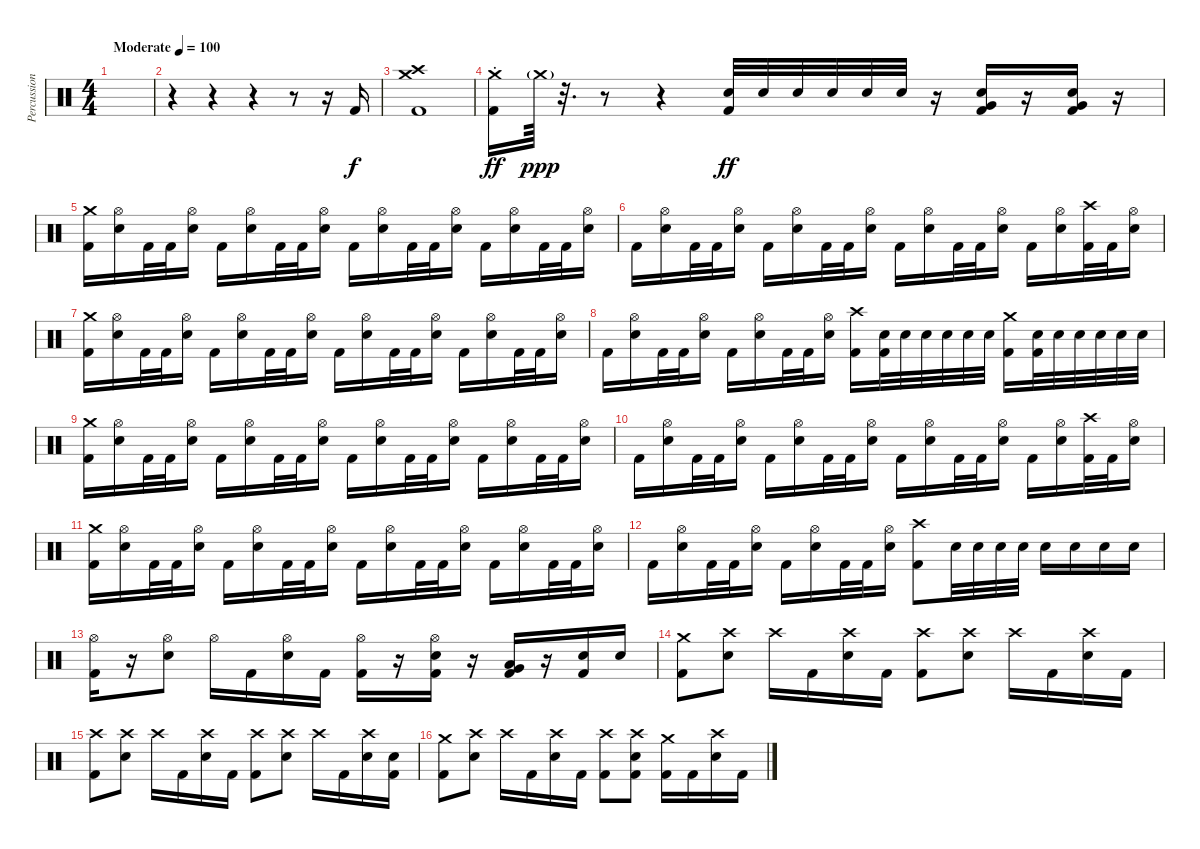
\track ("Percussion" "Percussion") {instrument percussion}
\staff {score}
\articulation defaults
\ts (4 4)
\tempo (100 "Moderate")
\clef neutral
\ks c
|
r.4 r.4 r.4 r.8 r.16 "Kick (hit) 2".16 |
("Crash medium (hit)" "Crash high (hit)" "Kick (hit) 2").1{dy f} |
("Crash medium (hit)"{st} "Kick (hit) 2").16{dy ff} "Crash medium (hit)"{g}.64{dy ppp} r.32{d} r.8 r.4 ("Electric Snare (hit)" "Kick (hit) 2").32{dy ff} "Electric Snare (hit)".32 "Electric Snare (hit)".32 "Electric Snare (hit)".32 "Electric Snare (hit)".32 "Electric Snare (hit)".32 r.16 ("Electric Snare (hit)" "Very Low Tom (hit)" "Kick (hit) 2").16 r.16 ("Electric Snare (hit)" "Very Low Tom (hit)" "Kick (hit) 2").16 r.16 |
("Crash medium (hit)" "Kick (hit) 2").16 ("Hi-Hat (open)" "Electric Snare (hit)").16 "Kick (hit) 2".32 "Kick (hit) 2".32 ("Hi-Hat (open)" "Electric Snare (hit)").16 "Kick (hit) 2".16 ("Hi-Hat (open)" "Electric Snare (hit)").16 "Kick (hit) 2".32 "Kick (hit) 2".32 ("Hi-Hat (open)" "Electric Snare (hit)").16 "Kick (hit) 2".16 ("Hi-Hat (open)" "Electric Snare (hit)").16 "Kick (hit) 2".32 "Kick (hit) 2".32 ("Hi-Hat (open)" "Electric Snare (hit)").16 "Kick (hit) 2".16 ("Hi-Hat (open)" "Electric Snare (hit)").16 "Kick (hit) 2".32 "Kick (hit) 2".32 ("Hi-Hat (open)" "Electric Snare (hit)").16 |
"Kick (hit) 2".16 ("Hi-Hat (open)" "Electric Snare (hit)").16 "Kick (hit) 2".32 "Kick (hit) 2".32 ("Hi-Hat (open)" "Electric Snare (hit)").16 "Kick (hit) 2".16 ("Hi-Hat (open)" "Electric Snare (hit)").16 "Kick (hit) 2".32 "Kick (hit) 2".32 ("Hi-Hat (open)" "Electric Snare (hit)").16 "Kick (hit) 2".16 ("Hi-Hat (open)" "Electric Snare (hit)").16 "Kick (hit) 2".32 "Kick (hit) 2".32 ("Hi-Hat (open)" "Electric Snare (hit)").16 "Kick (hit) 2".16 ("Hi-Hat (open)" "Electric Snare (hit)").16 ("Crash high (hit)" "Kick (hit) 2").32 "Kick (hit) 2".32 ("Hi-Hat (open)" "Electric Snare (hit)").16 |
("Crash medium (hit)" "Kick (hit) 2").16 ("Hi-Hat (open)" "Electric Snare (hit)").16 "Kick (hit) 2".32 "Kick (hit) 2".32 ("Hi-Hat (open)" "Electric Snare (hit)").16 "Kick (hit) 2".16 ("Hi-Hat (open)" "Electric Snare (hit)").16 "Kick (hit) 2".32 "Kick (hit) 2".32 ("Hi-Hat (open)" "Electric Snare (hit)").16 "Kick (hit) 2".16 ("Hi-Hat (open)" "Electric Snare (hit)").16 "Kick (hit) 2".32 "Kick (hit) 2".32 ("Hi-Hat (open)" "Electric Snare (hit)").16 "Kick (hit) 2".16 ("Hi-Hat (open)" "Electric Snare (hit)").16 "Kick (hit) 2".32 "Kick (hit) 2".32 ("Hi-Hat (open)" "Electric Snare (hit)").16 |
"Kick (hit) 2".16 ("Hi-Hat (open)" "Electric Snare (hit)").16 "Kick (hit) 2".32 "Kick (hit) 2".32 ("Hi-Hat (open)" "Electric Snare (hit)").16 "Kick (hit) 2".16 ("Hi-Hat (open)" "Electric Snare (hit)").16 "Kick (hit) 2".32 "Kick (hit) 2".32 ("Hi-Hat (open)" "Electric Snare (hit)").16 ("Crash high (hit)" "Kick (hit) 2").16 ("Electric Snare (hit)" "Kick (hit) 2").32 "Electric Snare (hit)".32 "Electric Snare (hit)".32 "Electric Snare (hit)".32 "Electric Snare (hit)".32 "Electric Snare (hit)".32 ("Crash medium (hit)" "Kick (hit) 2").16 ("Electric Snare (hit)" "Kick (hit) 2").32 "Electric Snare (hit)".32 "Electric Snare (hit)".32 "Electric Snare (hit)".32 "Electric Snare (hit)".32 "Electric Snare (hit)".32 |
("Crash medium (hit)" "Kick (hit) 2").16 ("Hi-Hat (open)" "Electric Snare (hit)").16 "Kick (hit) 2".32 "Kick (hit) 2".32 ("Hi-Hat (open)" "Electric Snare (hit)").16 "Kick (hit) 2".16 ("Hi-Hat (open)" "Electric Snare (hit)").16 "Kick (hit) 2".32 "Kick (hit) 2".32 ("Hi-Hat (open)" "Electric Snare (hit)").16 "Kick (hit) 2".16 ("Hi-Hat (open)" "Electric Snare (hit)").16 "Kick (hit) 2".32 "Kick (hit) 2".32 ("Hi-Hat (open)" "Electric Snare (hit)").16 "Kick (hit) 2".16 ("Hi-Hat (open)" "Electric Snare (hit)").16 "Kick (hit) 2".32 "Kick (hit) 2".32 ("Hi-Hat (open)" "Electric Snare (hit)").16 |
"Kick (hit) 2".16 ("Hi-Hat (open)" "Electric Snare (hit)").16 "Kick (hit) 2".32 "Kick (hit) 2".32 ("Hi-Hat (open)" "Electric Snare (hit)").16 "Kick (hit) 2".16 ("Hi-Hat (open)" "Electric Snare (hit)").16 "Kick (hit) 2".32 "Kick (hit) 2".32 ("Hi-Hat (open)" "Electric Snare (hit)").16 "Kick (hit) 2".16 ("Hi-Hat (open)" "Electric Snare (hit)").16 "Kick (hit) 2".32 "Kick (hit) 2".32 ("Hi-Hat (open)" "Electric Snare (hit)").16 "Kick (hit) 2".16 ("Hi-Hat (open)" "Electric Snare (hit)").16 ("Crash high (hit)" "Kick (hit) 2").32 "Kick (hit) 2".32 ("Hi-Hat (open)" "Electric Snare (hit)").16 |
("Crash medium (hit)" "Kick (hit) 2").16 ("Hi-Hat (open)" "Electric Snare (hit)").16 "Kick (hit) 2".32 "Kick (hit) 2".32 ("Hi-Hat (open)" "Electric Snare (hit)").16 "Kick (hit) 2".16 ("Hi-Hat (open)" "Electric Snare (hit)").16 "Kick (hit) 2".32 "Kick (hit) 2".32 ("Hi-Hat (open)" "Electric Snare (hit)").16 "Kick (hit) 2".16 ("Hi-Hat (open)" "Electric Snare (hit)").16 "Kick (hit) 2".32 "Kick (hit) 2".32 ("Hi-Hat (open)" "Electric Snare (hit)").16 "Kick (hit) 2".16 ("Hi-Hat (open)" "Electric Snare (hit)").16 "Kick (hit) 2".32 "Kick (hit) 2".32 ("Hi-Hat (open)" "Electric Snare (hit)").16 |
"Kick (hit) 2".16 ("Hi-Hat (open)" "Electric Snare (hit)").16 "Kick (hit) 2".32 "Kick (hit) 2".32 ("Hi-Hat (open)" "Electric Snare (hit)").16 "Kick (hit) 2".16 ("Hi-Hat (open)" "Electric Snare (hit)").16 "Kick (hit) 2".32 "Kick (hit) 2".32 ("Hi-Hat (open)" "Electric Snare (hit)").16 ("Crash high (hit)" "Kick (hit) 2").8 "Electric Snare (hit)".32 "Electric Snare (hit)".32 "Electric Snare (hit)".32 "Electric Snare (hit)".32 "Electric Snare (hit)".16 "Electric Snare (hit)".16 "Electric Snare (hit)".16 "Electric Snare (hit)".16 |
("Hi-Hat (open)" "Kick (hit) 2").16 r.16 ("Hi-Hat (open)" "Electric Snare (hit)").8 "Hi-Hat (open)".16 "Kick (hit) 2".16 ("Hi-Hat (open)" "Electric Snare (hit)").16 "Kick (hit) 2".16 ("Hi-Hat (open)" "Kick (hit) 2").16 r.16 ("Hi-Hat (open)" "Electric Snare (hit)" "Kick (hit) 2").16 r.16 ("Low Tom (hit)" "Very Low Tom (hit)" "Kick (hit) 2").16 r.16 ("Electric Snare (hit)" "Kick (hit) 2").16 "Electric Snare (hit)".16 |
("Crash medium (hit)" "Kick (hit) 2").8 ("Crash high (hit)" "Electric Snare (hit)").8 "Crash high (hit)".16 "Kick (hit) 2".16 ("Crash high (hit)" "Electric Snare (hit)").16 "Kick (hit) 2".16 ("Crash high (hit)" "Kick (hit) 2").8 ("Crash high (hit)" "Electric Snare (hit)").8 "Crash high (hit)".16 "Kick (hit) 2".16 ("Crash high (hit)" "Electric Snare (hit)").16 "Kick (hit) 2".16 |
("Crash high (hit)" "Kick (hit) 2").8 ("Crash high (hit)" "Electric Snare (hit)").8 "Crash high (hit)".16 "Kick (hit) 2".16 ("Crash high (hit)" "Electric Snare (hit)").16 "Kick (hit) 2".16 ("Crash high (hit)" "Kick (hit) 2").8 ("Crash high (hit)" "Electric Snare (hit)").8 "Crash high (hit)".16 "Kick (hit) 2".16 ("Crash high (hit)" "Electric Snare (hit)").16 ("Electric Snare (hit)" "Kick (hit) 2").16 |
("Crash medium (hit)" "Kick (hit) 2").8 ("Crash high (hit)" "Electric Snare (hit)").8 "Crash high (hit)".16 "Kick (hit) 2".16 ("Crash high (hit)" "Electric Snare (hit)").16 "Kick (hit) 2".16 ("Crash high (hit)" "Kick (hit) 2").8 ("Crash high (hit)" "Electric Snare (hit)" "Kick (hit) 2").8 ("Crash medium (hit)" "Kick (hit) 2").16 "Kick (hit) 2".16 ("Crash high (hit)" "Electric Snare (hit)").16 "Kick (hit) 2".16
